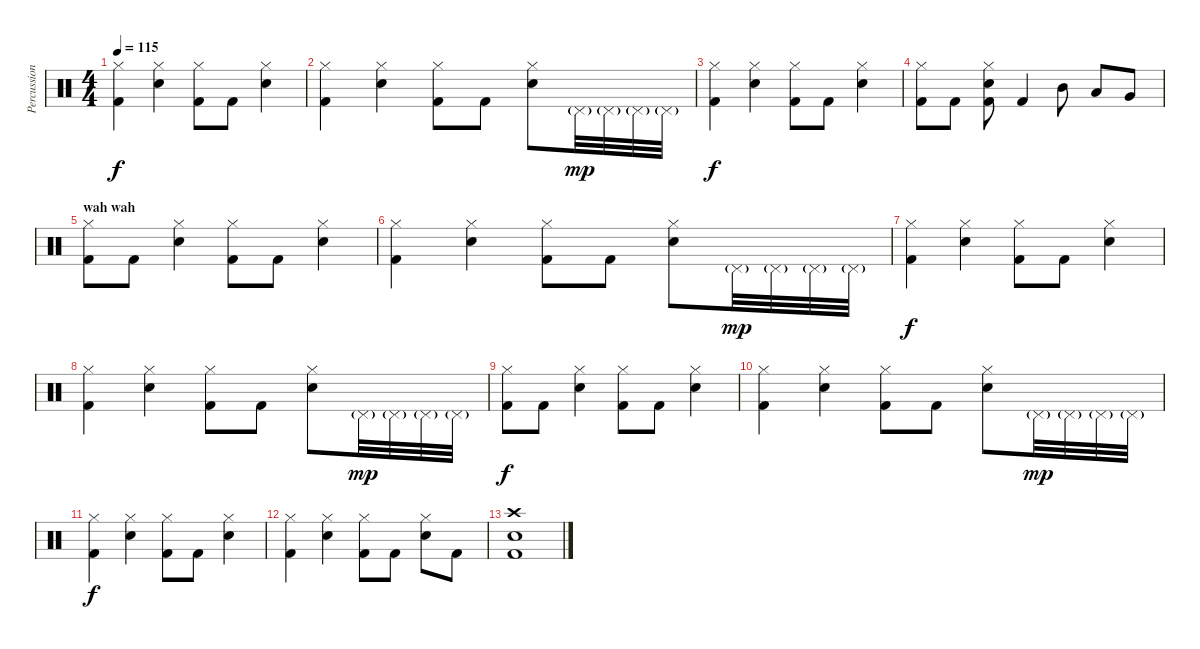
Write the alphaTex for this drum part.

\track ("Percussion" "Percussion") {instrument percussion}
\staff {score}
\articulation defaults
\ts (4 4)
\tempo 115
\clef neutral
\ks c
("Hi-Hat (closed)" "Kick (hit) 2").4{dy f} ("Hi-Hat (closed)" "Snare (hit) 2").4 ("Hi-Hat (closed)" "Kick (hit) 2").8 "Kick (hit) 2".8 ("Hi-Hat (closed)" "Snare (hit) 2").4 |
("Hi-Hat (closed)" "Kick (hit) 2").4 ("Hi-Hat (closed)" "Snare (hit) 2").4 ("Hi-Hat (closed)" "Kick (hit) 2").8 "Kick (hit) 2".8 ("Hi-Hat (closed)" "Snare (hit) 2").8 "Pedal Hi-Hat (hit)"{g}.32{dy mp} "Pedal Hi-Hat (hit)"{g}.32 "Pedal Hi-Hat (hit)"{g}.32 "Pedal Hi-Hat (hit)"{g}.32 |
("Hi-Hat (closed)" "Kick (hit) 2").4{dy f} ("Hi-Hat (closed)" "Snare (hit) 2").4 ("Hi-Hat (closed)" "Kick (hit) 2").8 "Kick (hit) 2".8 ("Hi-Hat (closed)" "Snare (hit) 2").4 |
("Hi-Hat (closed)" "Kick (hit) 2").8 "Kick (hit) 2".8 ("Hi-Hat (closed)" "Snare (hit) 2" "Kick (hit) 2").8 "Kick (hit) 2".4 "Mid Tom (hit)".8 "Low Tom (hit)".8 "Very Low Tom (hit)".8 |
\section ("" "wah wah")
("Hi-Hat (closed)" "Kick (hit) 2").8 "Kick (hit) 2".8 ("Hi-Hat (closed)" "Snare (hit) 2").4 ("Hi-Hat (closed)" "Kick (hit) 2").8 "Kick (hit) 2".8 ("Hi-Hat (closed)" "Snare (hit) 2").4 |
("Hi-Hat (closed)" "Kick (hit) 2").4 ("Hi-Hat (closed)" "Snare (hit) 2").4 ("Hi-Hat (closed)" "Kick (hit) 2").8 "Kick (hit) 2".8 ("Hi-Hat (closed)" "Snare (hit) 2").8 "Pedal Hi-Hat (hit)"{g}.32{dy mp} "Pedal Hi-Hat (hit)"{g}.32 "Pedal Hi-Hat (hit)"{g}.32 "Pedal Hi-Hat (hit)"{g}.32 |
("Hi-Hat (closed)" "Kick (hit) 2").4{dy f} ("Hi-Hat (closed)" "Snare (hit) 2").4 ("Hi-Hat (closed)" "Kick (hit) 2").8 "Kick (hit) 2".8 ("Hi-Hat (closed)" "Snare (hit) 2").4 |
("Hi-Hat (closed)" "Kick (hit) 2").4 ("Hi-Hat (closed)" "Snare (hit) 2").4 ("Hi-Hat (closed)" "Kick (hit) 2").8 "Kick (hit) 2".8 ("Hi-Hat (closed)" "Snare (hit) 2").8 "Pedal Hi-Hat (hit)"{g}.32{dy mp} "Pedal Hi-Hat (hit)"{g}.32 "Pedal Hi-Hat (hit)"{g}.32 "Pedal Hi-Hat (hit)"{g}.32 |
("Hi-Hat (closed)" "Kick (hit) 2").8{dy f} "Kick (hit) 2".8 ("Hi-Hat (closed)" "Snare (hit) 2").4 ("Hi-Hat (closed)" "Kick (hit) 2").8 "Kick (hit) 2".8 ("Hi-Hat (closed)" "Snare (hit) 2").4 |
("Hi-Hat (closed)" "Kick (hit) 2").4 ("Hi-Hat (closed)" "Snare (hit) 2").4 ("Hi-Hat (closed)" "Kick (hit) 2").8 "Kick (hit) 2".8 ("Hi-Hat (closed)" "Snare (hit) 2").8 "Pedal Hi-Hat (hit)"{g}.32{dy mp} "Pedal Hi-Hat (hit)"{g}.32 "Pedal Hi-Hat (hit)"{g}.32 "Pedal Hi-Hat (hit)"{g}.32 |
("Hi-Hat (closed)" "Kick (hit) 2").4{dy f} ("Hi-Hat (closed)" "Snare (hit) 2").4 ("Hi-Hat (closed)" "Kick (hit) 2").8 "Kick (hit) 2".8 ("Hi-Hat (closed)" "Snare (hit) 2").4 |
("Hi-Hat (closed)" "Kick (hit) 2").4 ("Hi-Hat (closed)" "Snare (hit) 2").4 ("Hi-Hat (closed)" "Kick (hit) 2").8 "Kick (hit) 2".8 ("Hi-Hat (closed)" "Snare (hit) 2").8 "Kick (hit) 2".8 |
("Crash high (hit)" "Snare (hit) 2" "Kick (hit) 2").1
